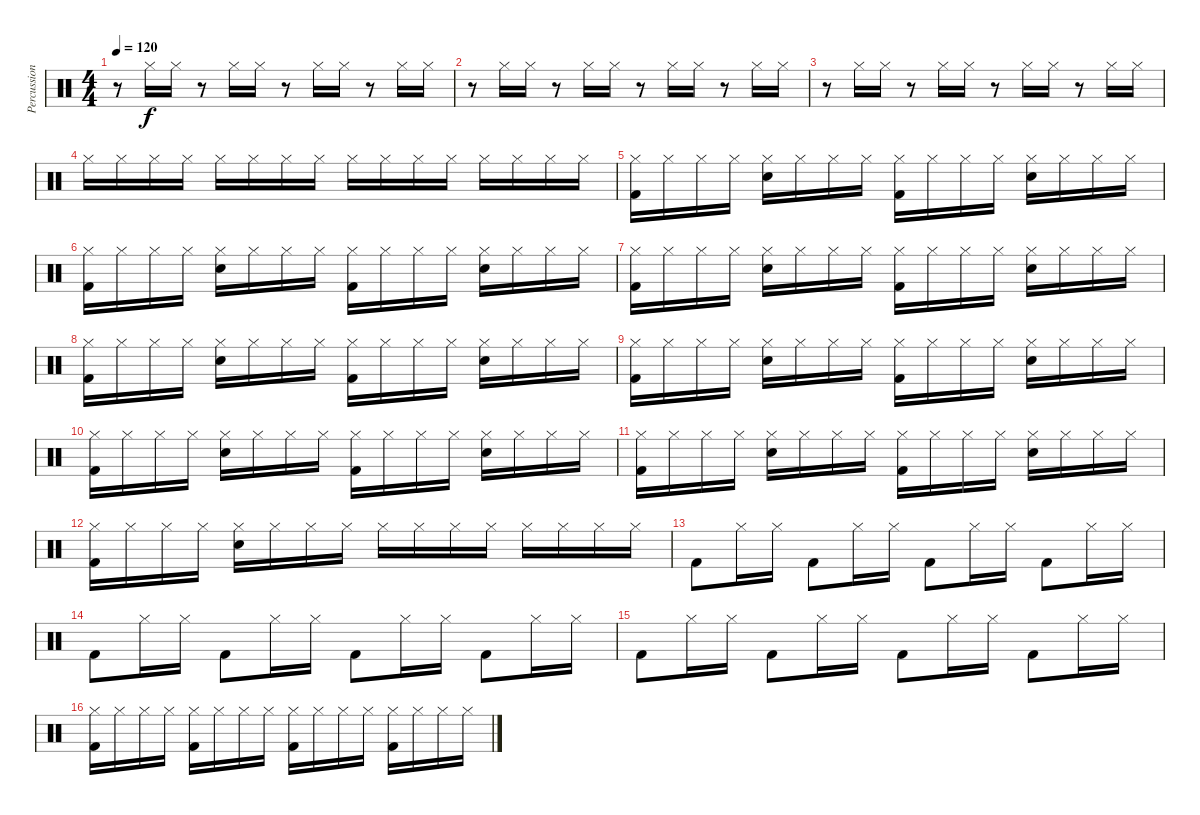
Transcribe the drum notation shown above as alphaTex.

\track ("Percussion" "Percussion") {instrument percussion}
\staff {score}
\articulation defaults
\ts (4 4)
\tempo 120
\clef neutral
\ks c
r.8{dy f} "Hi-Hat (closed)".16 "Hi-Hat (closed)".16 r.8 "Hi-Hat (closed)".16 "Hi-Hat (closed)".16 r.8 "Hi-Hat (closed)".16 "Hi-Hat (closed)".16 r.8 "Hi-Hat (closed)".16 "Hi-Hat (closed)".16 |
r.8 "Hi-Hat (closed)".16 "Hi-Hat (closed)".16 r.8 "Hi-Hat (closed)".16 "Hi-Hat (closed)".16 r.8 "Hi-Hat (closed)".16 "Hi-Hat (closed)".16 r.8 "Hi-Hat (closed)".16 "Hi-Hat (closed)".16 |
r.8 "Hi-Hat (closed)".16 "Hi-Hat (closed)".16 r.8 "Hi-Hat (closed)".16 "Hi-Hat (closed)".16 r.8 "Hi-Hat (closed)".16 "Hi-Hat (closed)".16 r.8 "Hi-Hat (closed)".16 "Hi-Hat (closed)".16 |
"Hi-Hat (closed)".16 "Hi-Hat (closed)".16 "Hi-Hat (closed)".16 "Hi-Hat (closed)".16 "Hi-Hat (closed)".16 "Hi-Hat (closed)".16 "Hi-Hat (closed)".16 "Hi-Hat (closed)".16 "Hi-Hat (closed)".16 "Hi-Hat (closed)".16 "Hi-Hat (closed)".16 "Hi-Hat (closed)".16 "Hi-Hat (closed)".16 "Hi-Hat (closed)".16 "Hi-Hat (closed)".16 "Hi-Hat (closed)".16 |
("Hi-Hat (closed)" "Kick (hit) 2").16 "Hi-Hat (closed)".16 "Hi-Hat (closed)".16 "Hi-Hat (closed)".16 ("Hi-Hat (closed)" "Snare (hit) 2").16 "Hi-Hat (closed)".16 "Hi-Hat (closed)".16 "Hi-Hat (closed)".16 ("Hi-Hat (closed)" "Kick (hit) 2").16 "Hi-Hat (closed)".16 "Hi-Hat (closed)".16 "Hi-Hat (closed)".16 ("Hi-Hat (closed)" "Snare (hit) 2").16 "Hi-Hat (closed)".16 "Hi-Hat (closed)".16 "Hi-Hat (closed)".16 |
("Hi-Hat (closed)" "Kick (hit) 2").16 "Hi-Hat (closed)".16 "Hi-Hat (closed)".16 "Hi-Hat (closed)".16 ("Hi-Hat (closed)" "Snare (hit) 2").16 "Hi-Hat (closed)".16 "Hi-Hat (closed)".16 "Hi-Hat (closed)".16 ("Hi-Hat (closed)" "Kick (hit) 2").16 "Hi-Hat (closed)".16 "Hi-Hat (closed)".16 "Hi-Hat (closed)".16 ("Hi-Hat (closed)" "Snare (hit) 2").16 "Hi-Hat (closed)".16 "Hi-Hat (closed)".16 "Hi-Hat (closed)".16 |
("Hi-Hat (closed)" "Kick (hit) 2").16 "Hi-Hat (closed)".16 "Hi-Hat (closed)".16 "Hi-Hat (closed)".16 ("Hi-Hat (closed)" "Snare (hit) 2").16 "Hi-Hat (closed)".16 "Hi-Hat (closed)".16 "Hi-Hat (closed)".16 ("Hi-Hat (closed)" "Kick (hit) 2").16 "Hi-Hat (closed)".16 "Hi-Hat (closed)".16 "Hi-Hat (closed)".16 ("Hi-Hat (closed)" "Snare (hit) 2").16 "Hi-Hat (closed)".16 "Hi-Hat (closed)".16 "Hi-Hat (closed)".16 |
("Hi-Hat (closed)" "Kick (hit) 2").16 "Hi-Hat (closed)".16 "Hi-Hat (closed)".16 "Hi-Hat (closed)".16 ("Hi-Hat (closed)" "Snare (hit) 2").16 "Hi-Hat (closed)".16 "Hi-Hat (closed)".16 "Hi-Hat (closed)".16 ("Hi-Hat (closed)" "Kick (hit) 2").16 "Hi-Hat (closed)".16 "Hi-Hat (closed)".16 "Hi-Hat (closed)".16 ("Hi-Hat (closed)" "Snare (hit) 2").16 "Hi-Hat (closed)".16 "Hi-Hat (closed)".16 "Hi-Hat (closed)".16 |
("Hi-Hat (closed)" "Kick (hit) 2").16 "Hi-Hat (closed)".16 "Hi-Hat (closed)".16 "Hi-Hat (closed)".16 ("Hi-Hat (closed)" "Snare (hit) 2").16 "Hi-Hat (closed)".16 "Hi-Hat (closed)".16 "Hi-Hat (closed)".16 ("Hi-Hat (closed)" "Kick (hit) 2").16 "Hi-Hat (closed)".16 "Hi-Hat (closed)".16 "Hi-Hat (closed)".16 ("Hi-Hat (closed)" "Snare (hit) 2").16 "Hi-Hat (closed)".16 "Hi-Hat (closed)".16 "Hi-Hat (closed)".16 |
("Hi-Hat (closed)" "Kick (hit) 2").16 "Hi-Hat (closed)".16 "Hi-Hat (closed)".16 "Hi-Hat (closed)".16 ("Hi-Hat (closed)" "Snare (hit) 2").16 "Hi-Hat (closed)".16 "Hi-Hat (closed)".16 "Hi-Hat (closed)".16 ("Hi-Hat (closed)" "Kick (hit) 2").16 "Hi-Hat (closed)".16 "Hi-Hat (closed)".16 "Hi-Hat (closed)".16 ("Hi-Hat (closed)" "Snare (hit) 2").16 "Hi-Hat (closed)".16 "Hi-Hat (closed)".16 "Hi-Hat (closed)".16 |
("Hi-Hat (closed)" "Kick (hit) 2").16 "Hi-Hat (closed)".16 "Hi-Hat (closed)".16 "Hi-Hat (closed)".16 ("Hi-Hat (closed)" "Snare (hit) 2").16 "Hi-Hat (closed)".16 "Hi-Hat (closed)".16 "Hi-Hat (closed)".16 ("Hi-Hat (closed)" "Kick (hit) 2").16 "Hi-Hat (closed)".16 "Hi-Hat (closed)".16 "Hi-Hat (closed)".16 ("Hi-Hat (closed)" "Snare (hit) 2").16 "Hi-Hat (closed)".16 "Hi-Hat (closed)".16 "Hi-Hat (closed)".16 |
("Hi-Hat (closed)" "Kick (hit) 2").16 "Hi-Hat (closed)".16 "Hi-Hat (closed)".16 "Hi-Hat (closed)".16 ("Hi-Hat (closed)" "Snare (hit) 2").16 "Hi-Hat (closed)".16 "Hi-Hat (closed)".16 "Hi-Hat (closed)".16 "Hi-Hat (closed)".16 "Hi-Hat (closed)".16 "Hi-Hat (closed)".16 "Hi-Hat (closed)".16 "Hi-Hat (closed)".16 "Hi-Hat (closed)".16 "Hi-Hat (closed)".16 "Hi-Hat (closed)".16 |
"Kick (hit) 2".8 "Hi-Hat (closed)".16 "Hi-Hat (closed)".16 "Kick (hit) 2".8 "Hi-Hat (closed)".16 "Hi-Hat (closed)".16 "Kick (hit) 2".8 "Hi-Hat (closed)".16 "Hi-Hat (closed)".16 "Kick (hit) 2".8 "Hi-Hat (closed)".16 "Hi-Hat (closed)".16 |
"Kick (hit) 2".8 "Hi-Hat (closed)".16 "Hi-Hat (closed)".16 "Kick (hit) 2".8 "Hi-Hat (closed)".16 "Hi-Hat (closed)".16 "Kick (hit) 2".8 "Hi-Hat (closed)".16 "Hi-Hat (closed)".16 "Kick (hit) 2".8 "Hi-Hat (closed)".16 "Hi-Hat (closed)".16 |
"Kick (hit) 2".8 "Hi-Hat (closed)".16 "Hi-Hat (closed)".16 "Kick (hit) 2".8 "Hi-Hat (closed)".16 "Hi-Hat (closed)".16 "Kick (hit) 2".8 "Hi-Hat (closed)".16 "Hi-Hat (closed)".16 "Kick (hit) 2".8 "Hi-Hat (closed)".16 "Hi-Hat (closed)".16 |
("Hi-Hat (closed)" "Kick (hit) 2").16 "Hi-Hat (closed)".16 "Hi-Hat (closed)".16 "Hi-Hat (closed)".16 ("Hi-Hat (closed)" "Kick (hit) 2").16 "Hi-Hat (closed)".16 "Hi-Hat (closed)".16 "Hi-Hat (closed)".16 ("Hi-Hat (closed)" "Kick (hit) 2").16 "Hi-Hat (closed)".16 "Hi-Hat (closed)".16 "Hi-Hat (closed)".16 ("Hi-Hat (closed)" "Kick (hit) 2").16 "Hi-Hat (closed)".16 "Hi-Hat (closed)".16 "Hi-Hat (closed)".16
